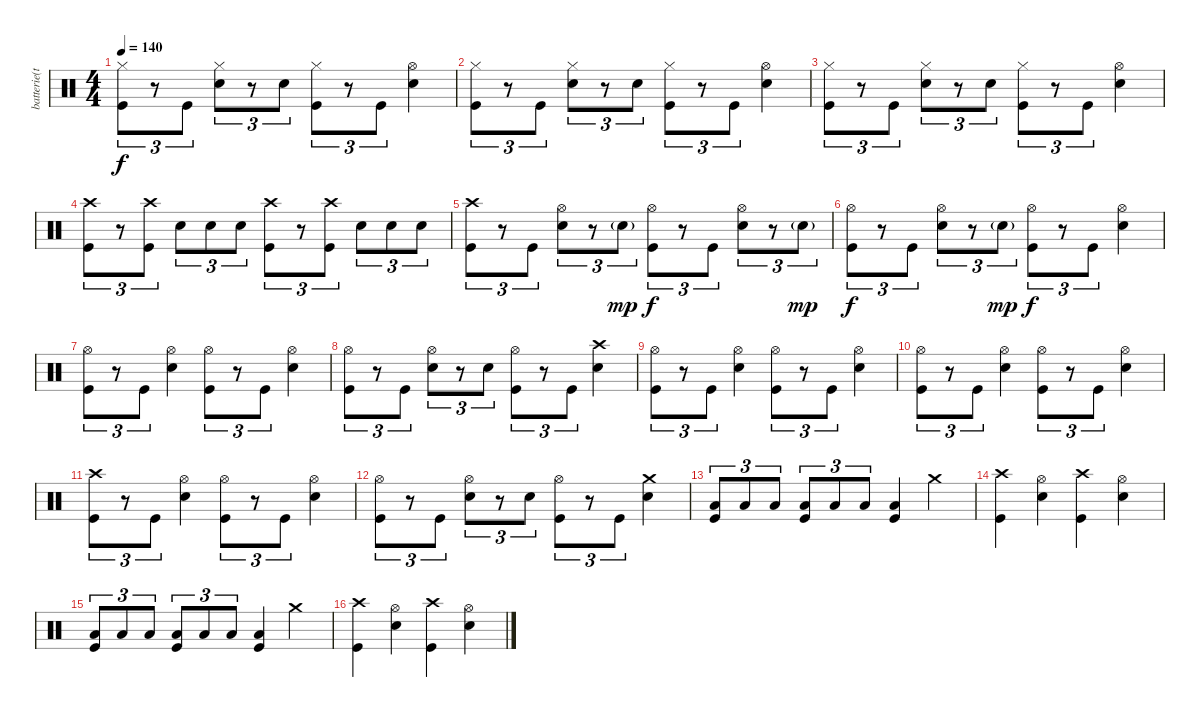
\track ("batterie(tré)" "batterie(t") {instrument percussion}
\staff {score}
\articulation defaults
\ts (4 4)
\tempo 140
\clef neutral
\ks c
("Hi-Hat (closed)" "Kick (hit)").8{tu (3 2) dy f} r.8{tu (3 2)} "Kick (hit)".8{tu (3 2)} ("Hi-Hat (closed)" "Electric Snare (hit)").8{tu (3 2)} r.8{tu (3 2)} "Electric Snare (hit)".8{tu (3 2)} ("Hi-Hat (closed)" "Kick (hit)").8{tu (3 2)} r.8{tu (3 2)} "Kick (hit)".8{tu (3 2)} ("Hi-Hat (open)" "Electric Snare (hit)").4 |
("Hi-Hat (closed)" "Kick (hit)").8{tu (3 2)} r.8{tu (3 2)} "Kick (hit)".8{tu (3 2)} ("Hi-Hat (closed)" "Electric Snare (hit)").8{tu (3 2)} r.8{tu (3 2)} "Electric Snare (hit)".8{tu (3 2)} ("Hi-Hat (closed)" "Kick (hit)").8{tu (3 2)} r.8{tu (3 2)} "Kick (hit)".8{tu (3 2)} ("Hi-Hat (open)" "Electric Snare (hit)").4 |
("Hi-Hat (closed)" "Kick (hit)").8{tu (3 2)} r.8{tu (3 2)} "Kick (hit)".8{tu (3 2)} ("Hi-Hat (closed)" "Electric Snare (hit)").8{tu (3 2)} r.8{tu (3 2)} "Electric Snare (hit)".8{tu (3 2)} ("Hi-Hat (closed)" "Kick (hit)").8{tu (3 2)} r.8{tu (3 2)} "Kick (hit)".8{tu (3 2)} ("Hi-Hat (open)" "Electric Snare (hit)").4 |
("Crash high (hit)" "Kick (hit)").8{tu (3 2)} r.8{tu (3 2)} ("Crash high (hit)" "Kick (hit)").8{tu (3 2)} "Electric Snare (hit)".8{tu (3 2)} "Electric Snare (hit)".8{tu (3 2)} "Electric Snare (hit)".8{tu (3 2)} ("Crash high (hit)" "Kick (hit)").8{tu (3 2)} r.8{tu (3 2)} ("Crash high (hit)" "Kick (hit)").8{tu (3 2)} "Electric Snare (hit)".8{tu (3 2)} "Electric Snare (hit)".8{tu (3 2)} "Electric Snare (hit)".8{tu (3 2)} |
("Crash high (hit)" "Kick (hit)").8{tu (3 2)} r.8{tu (3 2)} "Kick (hit)".8{tu (3 2)} ("Hi-Hat (open)" "Electric Snare (hit)").8{tu (3 2)} r.8{tu (3 2)} "Electric Snare (hit)"{g}.8{tu (3 2) dy mp} ("Hi-Hat (open)" "Kick (hit)").8{tu (3 2) dy f} r.8{tu (3 2)} "Kick (hit)".8{tu (3 2)} ("Hi-Hat (open)" "Electric Snare (hit)").8{tu (3 2)} r.8{tu (3 2)} "Electric Snare (hit)"{g}.8{tu (3 2) dy mp} |
("Hi-Hat (open)" "Kick (hit)").8{tu (3 2) dy f} r.8{tu (3 2)} "Kick (hit)".8{tu (3 2)} ("Hi-Hat (open)" "Electric Snare (hit)").8{tu (3 2)} r.8{tu (3 2)} "Electric Snare (hit)"{g}.8{tu (3 2) dy mp} ("Hi-Hat (open)" "Kick (hit)").8{tu (3 2) dy f} r.8{tu (3 2)} "Kick (hit)".8{tu (3 2)} ("Hi-Hat (open)" "Electric Snare (hit)").4 |
("Hi-Hat (open)" "Kick (hit)").8{tu (3 2)} r.8{tu (3 2)} "Kick (hit)".8{tu (3 2)} ("Hi-Hat (open)" "Electric Snare (hit)").4 ("Hi-Hat (open)" "Kick (hit)").8{tu (3 2)} r.8{tu (3 2)} "Kick (hit)".8{tu (3 2)} ("Hi-Hat (open)" "Electric Snare (hit)").4 |
("Hi-Hat (open)" "Kick (hit)").8{tu (3 2)} r.8{tu (3 2)} "Kick (hit)".8{tu (3 2)} ("Hi-Hat (open)" "Electric Snare (hit)").8{tu (3 2)} r.8{tu (3 2)} "Electric Snare (hit)".8{tu (3 2)} ("Hi-Hat (open)" "Kick (hit)").8{tu (3 2)} r.8{tu (3 2)} "Kick (hit)".8{tu (3 2)} ("Crash high (hit)" "Electric Snare (hit)").4 |
("Hi-Hat (open)" "Kick (hit)").8{tu (3 2)} r.8{tu (3 2)} "Kick (hit)".8{tu (3 2)} ("Hi-Hat (open)" "Electric Snare (hit)").4 ("Hi-Hat (open)" "Kick (hit)").8{tu (3 2)} r.8{tu (3 2)} "Kick (hit)".8{tu (3 2)} ("Hi-Hat (open)" "Electric Snare (hit)").4 |
("Hi-Hat (open)" "Kick (hit)").8{tu (3 2)} r.8{tu (3 2)} "Kick (hit)".8{tu (3 2)} ("Hi-Hat (open)" "Electric Snare (hit)").4 ("Hi-Hat (open)" "Kick (hit)").8{tu (3 2)} r.8{tu (3 2)} "Kick (hit)".8{tu (3 2)} ("Hi-Hat (open)" "Electric Snare (hit)").4 |
("Crash high (hit)" "Kick (hit)").8{tu (3 2)} r.8{tu (3 2)} "Kick (hit)".8{tu (3 2)} ("Hi-Hat (open)" "Electric Snare (hit)").4 ("Hi-Hat (open)" "Kick (hit)").8{tu (3 2)} r.8{tu (3 2)} "Kick (hit)".8{tu (3 2)} ("Hi-Hat (open)" "Electric Snare (hit)").4 |
("Hi-Hat (open)" "Kick (hit)").8{tu (3 2)} r.8{tu (3 2)} "Kick (hit)".8{tu (3 2)} ("Hi-Hat (open)" "Electric Snare (hit)").8{tu (3 2)} r.8{tu (3 2)} "Electric Snare (hit)".8{tu (3 2)} ("Hi-Hat (open)" "Kick (hit)").8{tu (3 2)} r.8{tu (3 2)} "Kick (hit)".8{tu (3 2)} ("Crash medium (hit)" "Electric Snare (hit)").4 |
("Low Floor Tom (hit)" "Kick (hit)").8{tu (3 2)} "Low Floor Tom (hit)".8{tu (3 2)} "Low Floor Tom (hit)".8{tu (3 2)} ("Low Floor Tom (hit)" "Kick (hit)").8{tu (3 2)} "Low Floor Tom (hit)".8{tu (3 2)} "Low Floor Tom (hit)".8{tu (3 2)} ("Low Floor Tom (hit)" "Kick (hit)").4 "Crash medium (hit)".4 |
("Crash high (hit)" "Kick (hit)").4 ("Hi-Hat (open)" "Electric Snare (hit)").4 ("Crash high (hit)" "Kick (hit)").4 ("Hi-Hat (open)" "Electric Snare (hit)").4 |
("Low Floor Tom (hit)" "Kick (hit)").8{tu (3 2)} "Low Floor Tom (hit)".8{tu (3 2)} "Low Floor Tom (hit)".8{tu (3 2)} ("Low Floor Tom (hit)" "Kick (hit)").8{tu (3 2)} "Low Floor Tom (hit)".8{tu (3 2)} "Low Floor Tom (hit)".8{tu (3 2)} ("Low Floor Tom (hit)" "Kick (hit)").4 "Crash medium (hit)".4 |
("Crash high (hit)" "Kick (hit)").4 ("Hi-Hat (open)" "Electric Snare (hit)").4 ("Crash high (hit)" "Kick (hit)").4 ("Hi-Hat (open)" "Electric Snare (hit)").4
